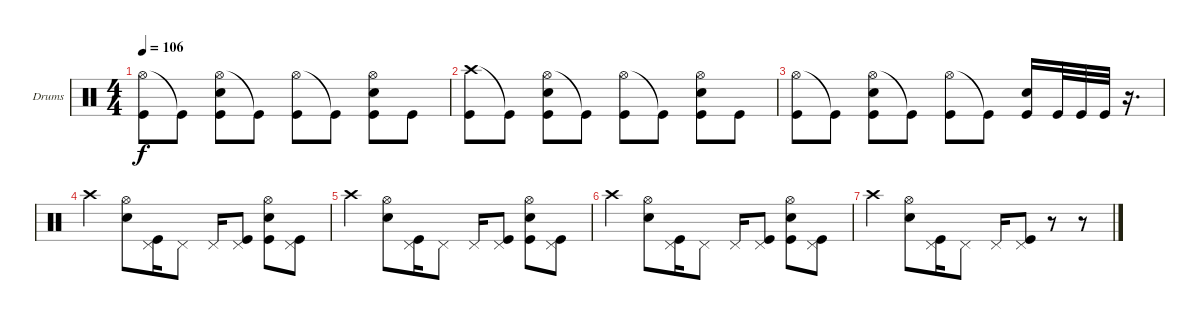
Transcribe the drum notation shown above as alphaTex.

\bracketExtendMode groupsimilarinstruments
\firstSystemTrackNameOrientation horizontal
\otherSystemsTrackNameOrientation horizontal
\track ("Drumkit" "Drums") {instrument percussion}
\staff {score}
\articulation defaults
\ts (4 4)
\tempo 106
\clef neutral
\ks c
("Hi-Hat (open)" "Kick (hit)").8{dy f} "Kick (hit)"{t}.8 ("Hi-Hat (open)" "Snare (hit) 2" "Kick (hit)").8 "Kick (hit)"{t}.8 ("Hi-Hat (open)" "Kick (hit)").8 "Kick (hit)"{t}.8 ("Hi-Hat (open)" "Snare (hit) 2" "Kick (hit)").8 "Kick (hit)".8 |
("Crash high (hit)" "Kick (hit)").8 "Kick (hit)"{t}.8 ("Hi-Hat (open)" "Snare (hit) 2" "Kick (hit)").8 "Kick (hit)"{t}.8 ("Hi-Hat (open)" "Kick (hit)").8 "Kick (hit)"{t}.8 ("Hi-Hat (open)" "Snare (hit) 2" "Kick (hit)").8 "Kick (hit)".8 |
("Hi-Hat (open)" "Kick (hit)").8 "Kick (hit)"{t}.8 ("Hi-Hat (open)" "Snare (hit) 2" "Kick (hit)").8 "Kick (hit)"{t}.8 ("Hi-Hat (open)" "Kick (hit)").8 "Kick (hit)"{t}.8 ("Snare (hit) 2" "Kick (hit)").16 "Kick (hit)".32 "Kick (hit)".32 "Kick (hit)".32 r.16{d} |
\section ("" "")
"Crash high (hit)".4 ("Hi-Hat (open)" "Snare (hit) 2").8 ("Pedal Hi-Hat (hit)" "Kick (hit)").16 "Pedal Hi-Hat (hit)".8 "Pedal Hi-Hat (hit)".16 ("Pedal Hi-Hat (hit)" "Kick (hit)").8 ("Hi-Hat (open)" "Snare (hit) 2" "Kick (hit)").8 ("Pedal Hi-Hat (hit)" "Kick (hit)").8 |
"Crash high (hit)".4 ("Hi-Hat (open)" "Snare (hit) 2").8 ("Pedal Hi-Hat (hit)" "Kick (hit)").16 "Pedal Hi-Hat (hit)".8 "Pedal Hi-Hat (hit)".16 ("Pedal Hi-Hat (hit)" "Kick (hit)").8 ("Hi-Hat (open)" "Snare (hit) 2" "Kick (hit)").8 ("Pedal Hi-Hat (hit)" "Kick (hit)").8 |
"Crash high (hit)".4 ("Hi-Hat (open)" "Snare (hit) 2").8 ("Pedal Hi-Hat (hit)" "Kick (hit)").16 "Pedal Hi-Hat (hit)".8 "Pedal Hi-Hat (hit)".16 ("Pedal Hi-Hat (hit)" "Kick (hit)").8 ("Hi-Hat (open)" "Snare (hit) 2" "Kick (hit)").8 ("Pedal Hi-Hat (hit)" "Kick (hit)").8 |
"Crash high (hit)".4 ("Hi-Hat (open)" "Snare (hit) 2").8 ("Pedal Hi-Hat (hit)" "Kick (hit)").16 "Pedal Hi-Hat (hit)".8 "Pedal Hi-Hat (hit)".16 ("Pedal Hi-Hat (hit)" "Kick (hit)").8 r.8 r.8
